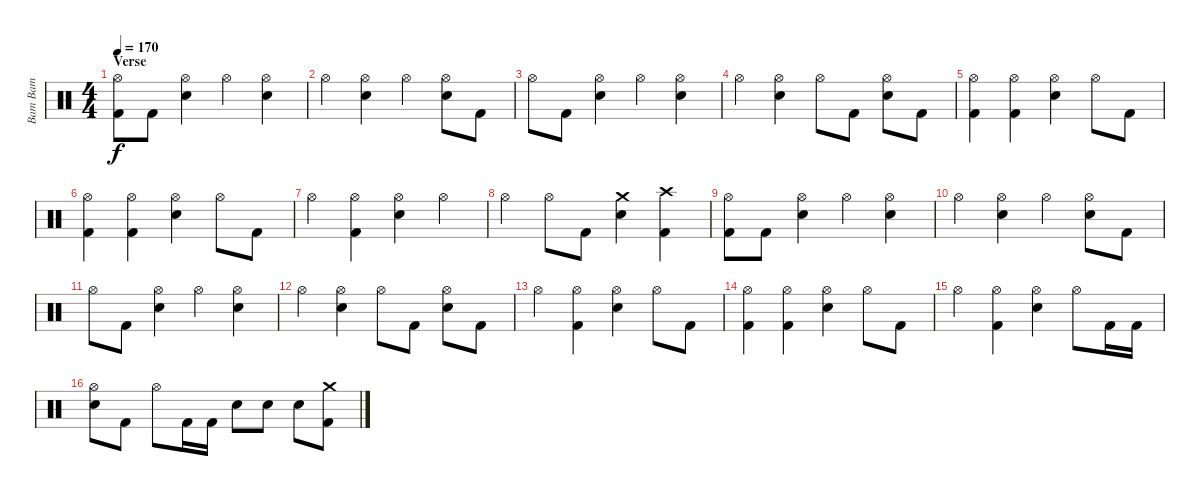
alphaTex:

\track ("Bam Bam" "Bam Bam") {instrument percussion}
\staff {score}
\articulation defaults
\ts (4 4)
\section ("" "Verse")
\tempo 170
\clef neutral
\ks c
("Hi-Hat (open)" "Kick (hit) 2").8{dy f} "Kick (hit) 2".8 ("Hi-Hat (open)" "Electric Snare (hit)").4 "Hi-Hat (open)".4 ("Hi-Hat (open)" "Electric Snare (hit)").4 |
"Hi-Hat (open)".4 ("Hi-Hat (open)" "Electric Snare (hit)").4 "Hi-Hat (open)".4 ("Hi-Hat (open)" "Electric Snare (hit)").8 "Kick (hit) 2".8 |
"Hi-Hat (open)".8 "Kick (hit) 2".8 ("Hi-Hat (open)" "Electric Snare (hit)").4 "Hi-Hat (open)".4 ("Hi-Hat (open)" "Electric Snare (hit)").4 |
"Hi-Hat (open)".4 ("Hi-Hat (open)" "Electric Snare (hit)").4 "Hi-Hat (open)".8 "Kick (hit) 2".8 ("Hi-Hat (open)" "Electric Snare (hit)").8 "Kick (hit) 2".8 |
("Hi-Hat (open)" "Kick (hit) 2").4 ("Hi-Hat (open)" "Kick (hit) 2").4 ("Hi-Hat (open)" "Electric Snare (hit)").4 "Hi-Hat (open)".8 "Kick (hit) 2".8 |
("Hi-Hat (open)" "Kick (hit) 2").4 ("Hi-Hat (open)" "Kick (hit) 2").4 ("Hi-Hat (open)" "Electric Snare (hit)").4 "Hi-Hat (open)".8 "Kick (hit) 2".8 |
"Hi-Hat (open)".4 ("Hi-Hat (open)" "Kick (hit) 2").4 ("Hi-Hat (open)" "Electric Snare (hit)").4 "Hi-Hat (open)".4 |
"Hi-Hat (open)".4 "Hi-Hat (open)".8 "Kick (hit) 2".8 ("Crash medium (hit)" "Electric Snare (hit)").4 ("Crash high (hit)" "Kick (hit) 2").4 |
("Hi-Hat (open)" "Kick (hit) 2").8 "Kick (hit) 2".8 ("Hi-Hat (open)" "Electric Snare (hit)").4 "Hi-Hat (open)".4 ("Hi-Hat (open)" "Electric Snare (hit)").4 |
"Hi-Hat (open)".4 ("Hi-Hat (open)" "Electric Snare (hit)").4 "Hi-Hat (open)".4 ("Hi-Hat (open)" "Electric Snare (hit)").8 "Kick (hit) 2".8 |
"Hi-Hat (open)".8 "Kick (hit) 2".8 ("Hi-Hat (open)" "Electric Snare (hit)").4 "Hi-Hat (open)".4 ("Hi-Hat (open)" "Electric Snare (hit)").4 |
"Hi-Hat (open)".4 ("Hi-Hat (open)" "Electric Snare (hit)").4 "Hi-Hat (open)".8 "Kick (hit) 2".8 ("Hi-Hat (open)" "Electric Snare (hit)").8 "Kick (hit) 2".8 |
"Hi-Hat (open)".4 ("Hi-Hat (open)" "Kick (hit) 2").4 ("Hi-Hat (open)" "Electric Snare (hit)").4 "Hi-Hat (open)".8 "Kick (hit) 2".8 |
("Hi-Hat (open)" "Kick (hit) 2").4 ("Hi-Hat (open)" "Kick (hit) 2").4 ("Hi-Hat (open)" "Electric Snare (hit)").4 "Hi-Hat (open)".8 "Kick (hit) 2".8 |
"Hi-Hat (open)".4 ("Hi-Hat (open)" "Kick (hit) 2").4 ("Hi-Hat (open)" "Electric Snare (hit)").4 "Hi-Hat (open)".8 "Kick (hit) 2".16 "Kick (hit) 2".16 |
("Hi-Hat (open)" "Electric Snare (hit)").8 "Kick (hit) 2".8 "Hi-Hat (open)".8 "Kick (hit) 2".16 "Kick (hit) 2".16 "Electric Snare (hit)".8 "Electric Snare (hit)".8 "Electric Snare (hit)".8 ("Crash medium (hit)" "Kick (hit) 2").8
